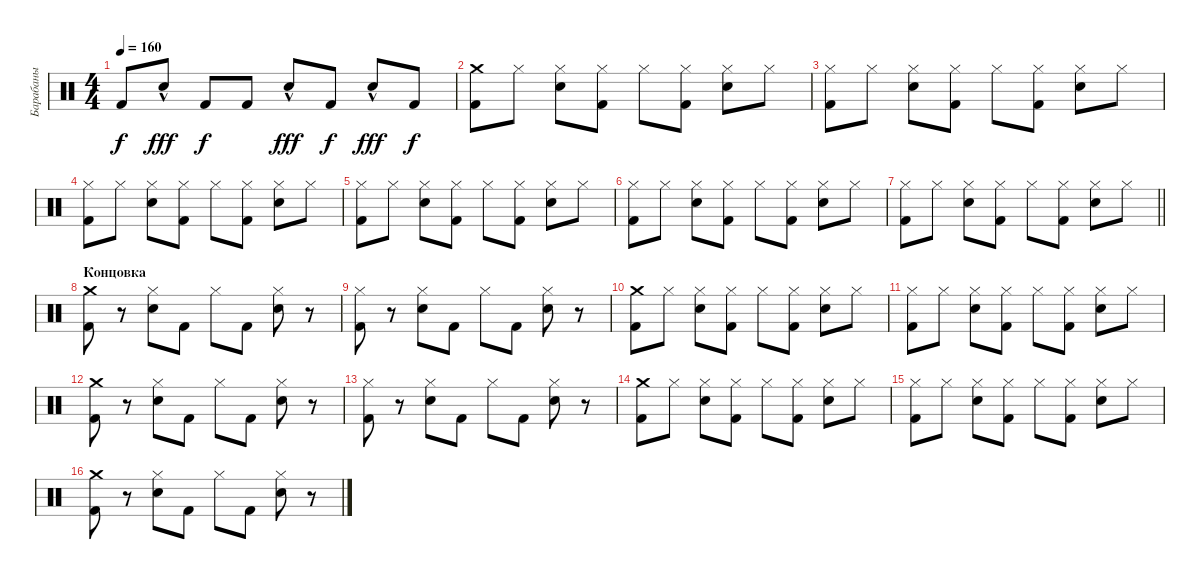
\track ("Барабаны" "Барабаны") {instrument percussion}
\staff {score}
\articulation defaults
\ts (4 4)
\tempo 160
\clef neutral
\ks c "Kick (hit) 2".8{dy f} "Snare (hit) 2"{hac}.8{dy fff} "Kick (hit) 2".8{dy f} "Kick (hit) 2".8 "Snare (hit) 2"{hac}.8{dy fff} "Kick (hit) 2".8{dy f} "Snare (hit) 2"{hac}.8{dy fff} "Kick (hit) 2".8{dy f}
|
("Crash medium (hit)" "Kick (hit) 2").8 "Hi-Hat (closed)".8 ("Hi-Hat (closed)" "Snare (hit) 2").8 ("Hi-Hat (closed)" "Kick (hit) 2").8 "Hi-Hat (closed)".8 ("Hi-Hat (closed)" "Kick (hit) 2").8 ("Hi-Hat (closed)" "Snare (hit) 2").8 "Hi-Hat (closed)".8 |
("Hi-Hat (closed)" "Kick (hit) 2").8 "Hi-Hat (closed)".8 ("Hi-Hat (closed)" "Snare (hit) 2").8 ("Hi-Hat (closed)" "Kick (hit) 2").8 "Hi-Hat (closed)".8 ("Hi-Hat (closed)" "Kick (hit) 2").8 ("Hi-Hat (closed)" "Snare (hit) 2").8 "Hi-Hat (closed)".8 |
("Hi-Hat (closed)" "Kick (hit) 2").8 "Hi-Hat (closed)".8 ("Hi-Hat (closed)" "Snare (hit) 2").8 ("Hi-Hat (closed)" "Kick (hit) 2").8 "Hi-Hat (closed)".8 ("Hi-Hat (closed)" "Kick (hit) 2").8 ("Hi-Hat (closed)" "Snare (hit) 2").8 "Hi-Hat (closed)".8 |
("Hi-Hat (closed)" "Kick (hit) 2").8 "Hi-Hat (closed)".8 ("Hi-Hat (closed)" "Snare (hit) 2").8 ("Hi-Hat (closed)" "Kick (hit) 2").8 "Hi-Hat (closed)".8 ("Hi-Hat (closed)" "Kick (hit) 2").8 ("Hi-Hat (closed)" "Snare (hit) 2").8 "Hi-Hat (closed)".8 |
("Hi-Hat (closed)" "Kick (hit) 2").8 "Hi-Hat (closed)".8 ("Hi-Hat (closed)" "Snare (hit) 2").8 ("Hi-Hat (closed)" "Kick (hit) 2").8 "Hi-Hat (closed)".8 ("Hi-Hat (closed)" "Kick (hit) 2").8 ("Hi-Hat (closed)" "Snare (hit) 2").8 "Hi-Hat (closed)".8 |
\barLineRight lightlight
("Hi-Hat (closed)" "Kick (hit) 2").8 "Hi-Hat (closed)".8 ("Hi-Hat (closed)" "Snare (hit) 2").8 ("Hi-Hat (closed)" "Kick (hit) 2").8 "Hi-Hat (closed)".8 ("Hi-Hat (closed)" "Kick (hit) 2").8 ("Hi-Hat (closed)" "Snare (hit) 2").8 "Hi-Hat (closed)".8 |
\section ("" "Концовка")
("Crash medium (hit)" "Kick (hit) 2").8 r.8 ("Hi-Hat (closed)" "Snare (hit) 2").8 "Kick (hit) 2".8 "Hi-Hat (closed)".8 "Kick (hit) 2".8 ("Hi-Hat (closed)" "Snare (hit) 2").8 r.8 |
("Hi-Hat (closed)" "Kick (hit) 2").8 r.8 ("Hi-Hat (closed)" "Snare (hit) 2").8 "Kick (hit) 2".8 "Hi-Hat (closed)".8 "Kick (hit) 2".8 ("Hi-Hat (closed)" "Snare (hit) 2").8 r.8 |
("Crash medium (hit)" "Kick (hit) 2").8 "Hi-Hat (closed)".8 ("Hi-Hat (closed)" "Snare (hit) 2").8 ("Hi-Hat (closed)" "Kick (hit) 2").8 "Hi-Hat (closed)".8 ("Hi-Hat (closed)" "Kick (hit) 2").8 ("Hi-Hat (closed)" "Snare (hit) 2").8 "Hi-Hat (closed)".8 |
("Hi-Hat (closed)" "Kick (hit) 2").8 "Hi-Hat (closed)".8 ("Hi-Hat (closed)" "Snare (hit) 2").8 ("Hi-Hat (closed)" "Kick (hit) 2").8 "Hi-Hat (closed)".8 ("Hi-Hat (closed)" "Kick (hit) 2").8 ("Hi-Hat (closed)" "Snare (hit) 2").8 "Hi-Hat (closed)".8 |
("Crash medium (hit)" "Kick (hit) 2").8 r.8 ("Hi-Hat (closed)" "Snare (hit) 2").8 "Kick (hit) 2".8 "Hi-Hat (closed)".8 "Kick (hit) 2".8 ("Hi-Hat (closed)" "Snare (hit) 2").8 r.8 |
("Hi-Hat (closed)" "Kick (hit) 2").8 r.8 ("Hi-Hat (closed)" "Snare (hit) 2").8 "Kick (hit) 2".8 "Hi-Hat (closed)".8 "Kick (hit) 2".8 ("Hi-Hat (closed)" "Snare (hit) 2").8 r.8 |
("Crash medium (hit)" "Kick (hit) 2").8 "Hi-Hat (closed)".8 ("Hi-Hat (closed)" "Snare (hit) 2").8 ("Hi-Hat (closed)" "Kick (hit) 2").8 "Hi-Hat (closed)".8 ("Hi-Hat (closed)" "Kick (hit) 2").8 ("Hi-Hat (closed)" "Snare (hit) 2").8 "Hi-Hat (closed)".8 |
("Hi-Hat (closed)" "Kick (hit) 2").8 "Hi-Hat (closed)".8 ("Hi-Hat (closed)" "Snare (hit) 2").8 ("Hi-Hat (closed)" "Kick (hit) 2").8 "Hi-Hat (closed)".8 ("Hi-Hat (closed)" "Kick (hit) 2").8 ("Hi-Hat (closed)" "Snare (hit) 2").8 "Hi-Hat (closed)".8 |
("Crash medium (hit)" "Kick (hit) 2").8 r.8 ("Hi-Hat (closed)" "Snare (hit) 2").8 "Kick (hit) 2".8 "Hi-Hat (closed)".8 "Kick (hit) 2".8 ("Hi-Hat (closed)" "Snare (hit) 2").8 r.8
